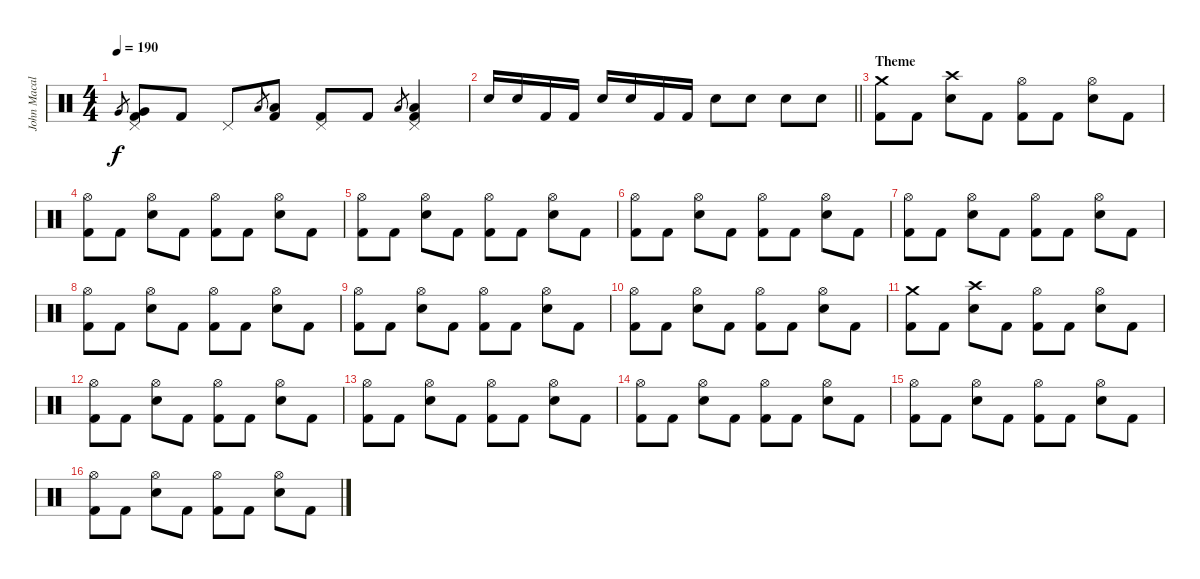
\track ("John Macaluso" "John Macal") {instrument percussion}
\staff {score}
\articulation defaults
\ts (4 4)
\tempo 190
\clef neutral
\ks c "Very Low Tom (hit)".8{gr dy f}
("Pedal Hi-Hat (hit)" "Very Low Tom (hit)" "Kick (hit) 2").8 "Kick (hit) 2".8 "Pedal Hi-Hat (hit)".8 "Low Tom (hit)".8{gr} ("Low Tom (hit)" "Kick (hit) 2").8 ("Pedal Hi-Hat (hit)" "Kick (hit) 2").8 "Kick (hit) 2".8 "Low Tom (hit)".8{gr} ("Pedal Hi-Hat (hit)" "Low Tom (hit)" "Kick (hit) 2").4 |
\barLineRight lightlight "Snare (hit) 2".16 "Snare (hit) 2".16 "Kick (hit) 2".16 "Kick (hit) 2".16 "Snare (hit) 2".16 "Snare (hit) 2".16 "Kick (hit) 2".16 "Kick (hit) 2".16 "Snare (hit) 2".8 "Snare (hit) 2".8 "Snare (hit) 2".8 "Snare (hit) 2".8
|
\section ("" "Theme")
("Crash medium (hit)" "Kick (hit) 2").8 "Kick (hit) 2".8 ("Crash high (hit)" "Snare (hit) 2").8 "Kick (hit) 2".8 ("Hi-Hat (open)" "Kick (hit) 2").8 "Kick (hit) 2".8 ("Hi-Hat (open)" "Snare (hit) 2").8 "Kick (hit) 2".8 |
("Hi-Hat (open)" "Kick (hit) 2").8 "Kick (hit) 2".8 ("Hi-Hat (open)" "Snare (hit) 2").8 "Kick (hit) 2".8 ("Hi-Hat (open)" "Kick (hit) 2").8 "Kick (hit) 2".8 ("Hi-Hat (open)" "Snare (hit) 2").8 "Kick (hit) 2".8 |
("Hi-Hat (open)" "Kick (hit) 2").8 "Kick (hit) 2".8 ("Hi-Hat (open)" "Snare (hit) 2").8 "Kick (hit) 2".8 ("Hi-Hat (open)" "Kick (hit) 2").8 "Kick (hit) 2".8 ("Hi-Hat (open)" "Snare (hit) 2").8 "Kick (hit) 2".8 |
("Hi-Hat (open)" "Kick (hit) 2").8 "Kick (hit) 2".8 ("Hi-Hat (open)" "Snare (hit) 2").8 "Kick (hit) 2".8 ("Hi-Hat (open)" "Kick (hit) 2").8 "Kick (hit) 2".8 ("Hi-Hat (open)" "Snare (hit) 2").8 "Kick (hit) 2".8 |
("Hi-Hat (open)" "Kick (hit) 2").8 "Kick (hit) 2".8 ("Hi-Hat (open)" "Snare (hit) 2").8 "Kick (hit) 2".8 ("Hi-Hat (open)" "Kick (hit) 2").8 "Kick (hit) 2".8 ("Hi-Hat (open)" "Snare (hit) 2").8 "Kick (hit) 2".8 |
("Hi-Hat (open)" "Kick (hit) 2").8 "Kick (hit) 2".8 ("Hi-Hat (open)" "Snare (hit) 2").8 "Kick (hit) 2".8 ("Hi-Hat (open)" "Kick (hit) 2").8 "Kick (hit) 2".8 ("Hi-Hat (open)" "Snare (hit) 2").8 "Kick (hit) 2".8 |
("Hi-Hat (open)" "Kick (hit) 2").8 "Kick (hit) 2".8 ("Hi-Hat (open)" "Snare (hit) 2").8 "Kick (hit) 2".8 ("Hi-Hat (open)" "Kick (hit) 2").8 "Kick (hit) 2".8 ("Hi-Hat (open)" "Snare (hit) 2").8 "Kick (hit) 2".8 |
("Hi-Hat (open)" "Kick (hit) 2").8 "Kick (hit) 2".8 ("Hi-Hat (open)" "Snare (hit) 2").8 "Kick (hit) 2".8 ("Hi-Hat (open)" "Kick (hit) 2").8 "Kick (hit) 2".8 ("Hi-Hat (open)" "Snare (hit) 2").8 "Kick (hit) 2".8 |
("Crash medium (hit)" "Kick (hit) 2").8 "Kick (hit) 2".8 ("Crash high (hit)" "Snare (hit) 2").8 "Kick (hit) 2".8 ("Hi-Hat (open)" "Kick (hit) 2").8 "Kick (hit) 2".8 ("Hi-Hat (open)" "Snare (hit) 2").8 "Kick (hit) 2".8 |
("Hi-Hat (open)" "Kick (hit) 2").8 "Kick (hit) 2".8 ("Hi-Hat (open)" "Snare (hit) 2").8 "Kick (hit) 2".8 ("Hi-Hat (open)" "Kick (hit) 2").8 "Kick (hit) 2".8 ("Hi-Hat (open)" "Snare (hit) 2").8 "Kick (hit) 2".8 |
("Hi-Hat (open)" "Kick (hit) 2").8 "Kick (hit) 2".8 ("Hi-Hat (open)" "Snare (hit) 2").8 "Kick (hit) 2".8 ("Hi-Hat (open)" "Kick (hit) 2").8 "Kick (hit) 2".8 ("Hi-Hat (open)" "Snare (hit) 2").8 "Kick (hit) 2".8 |
("Hi-Hat (open)" "Kick (hit) 2").8 "Kick (hit) 2".8 ("Hi-Hat (open)" "Snare (hit) 2").8 "Kick (hit) 2".8 ("Hi-Hat (open)" "Kick (hit) 2").8 "Kick (hit) 2".8 ("Hi-Hat (open)" "Snare (hit) 2").8 "Kick (hit) 2".8 |
("Hi-Hat (open)" "Kick (hit) 2").8 "Kick (hit) 2".8 ("Hi-Hat (open)" "Snare (hit) 2").8 "Kick (hit) 2".8 ("Hi-Hat (open)" "Kick (hit) 2").8 "Kick (hit) 2".8 ("Hi-Hat (open)" "Snare (hit) 2").8 "Kick (hit) 2".8 |
("Hi-Hat (open)" "Kick (hit) 2").8 "Kick (hit) 2".8 ("Hi-Hat (open)" "Snare (hit) 2").8 "Kick (hit) 2".8 ("Hi-Hat (open)" "Kick (hit) 2").8 "Kick (hit) 2".8 ("Hi-Hat (open)" "Snare (hit) 2").8 "Kick (hit) 2".8
